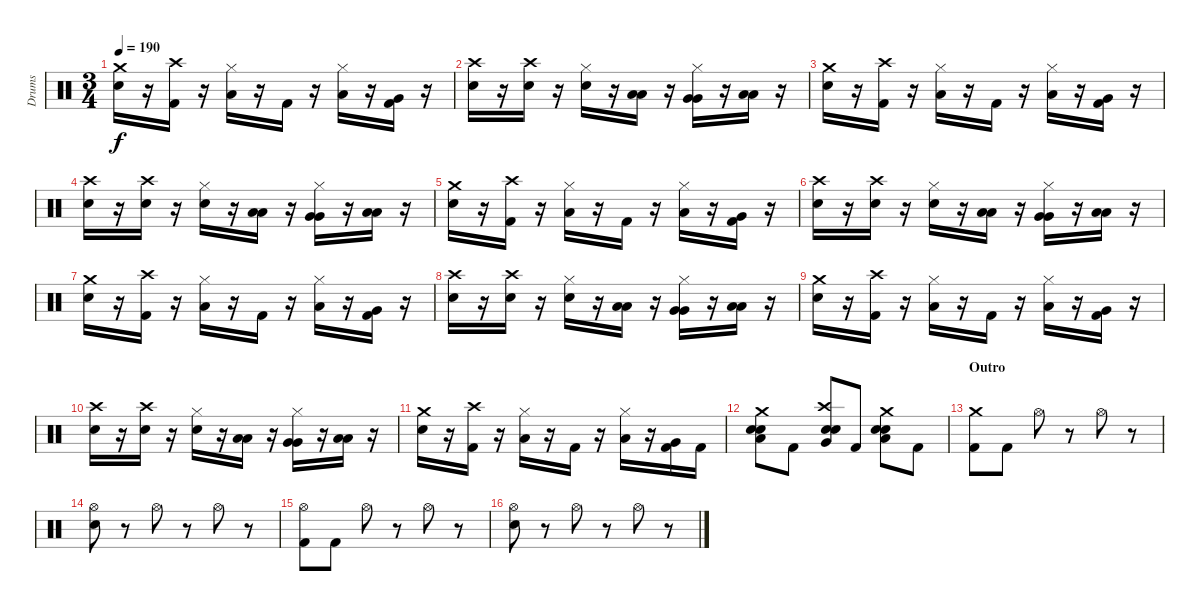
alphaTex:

\track ("Drums" "Drums") {instrument percussion}
\staff {score}
\articulation defaults
\ts (3 4)
\tempo 190
\clef neutral
\ks c
("Crash medium (hit)" "Snare (hit) 2").16{dy f} r.16 ("Crash high (hit)" "Kick (hit) 2").16 r.16 ("Hi-Hat (closed)" "Low Floor Tom (hit)").16 r.16 "Kick (hit) 2".16 r.16 ("Hi-Hat (closed)" "Low Tom (hit)").16 r.16 ("Very Low Tom (hit)" "Kick (hit) 2").16 r.16 |
("Crash high (hit)" "Snare (hit) 2").16 r.16 ("Crash high (hit)" "Snare (hit) 2").16 r.16 ("Hi-Hat (closed)" "Snare (hit) 2").16 r.16 ("Low Tom (hit)" "Low Tom (hit)").16 r.16 ("Hi-Hat (closed)" "Very Low Tom (hit)" "Very Low Tom (hit)").16 r.16 ("Low Floor Tom (hit)" "Low Floor Tom (hit)").16 r.16 |
("Crash medium (hit)" "Snare (hit) 2").16 r.16 ("Crash high (hit)" "Kick (hit) 2").16 r.16 ("Hi-Hat (closed)" "Low Floor Tom (hit)").16 r.16 "Kick (hit) 2".16 r.16 ("Hi-Hat (closed)" "Low Tom (hit)").16 r.16 ("Very Low Tom (hit)" "Kick (hit) 2").16 r.16 |
("Crash high (hit)" "Snare (hit) 2").16 r.16 ("Crash high (hit)" "Snare (hit) 2").16 r.16 ("Hi-Hat (closed)" "Snare (hit) 2").16 r.16 ("Low Tom (hit)" "Low Tom (hit)").16 r.16 ("Hi-Hat (closed)" "Very Low Tom (hit)" "Very Low Tom (hit)").16 r.16 ("Low Floor Tom (hit)" "Low Floor Tom (hit)").16 r.16 |
("Crash medium (hit)" "Snare (hit) 2").16 r.16 ("Crash high (hit)" "Kick (hit) 2").16 r.16 ("Hi-Hat (closed)" "Low Floor Tom (hit)").16 r.16 "Kick (hit) 2".16 r.16 ("Hi-Hat (closed)" "Low Tom (hit)").16 r.16 ("Very Low Tom (hit)" "Kick (hit) 2").16 r.16 |
("Crash high (hit)" "Snare (hit) 2").16 r.16 ("Crash high (hit)" "Snare (hit) 2").16 r.16 ("Hi-Hat (closed)" "Snare (hit) 2").16 r.16 ("Low Tom (hit)" "Low Tom (hit)").16 r.16 ("Hi-Hat (closed)" "Very Low Tom (hit)" "Very Low Tom (hit)").16 r.16 ("Low Floor Tom (hit)" "Low Floor Tom (hit)").16 r.16 |
("Crash medium (hit)" "Snare (hit) 2").16 r.16 ("Crash high (hit)" "Kick (hit) 2").16 r.16 ("Hi-Hat (closed)" "Low Floor Tom (hit)").16 r.16 "Kick (hit) 2".16 r.16 ("Hi-Hat (closed)" "Low Tom (hit)").16 r.16 ("Very Low Tom (hit)" "Kick (hit) 2").16 r.16 |
("Crash high (hit)" "Snare (hit) 2").16 r.16 ("Crash high (hit)" "Snare (hit) 2").16 r.16 ("Hi-Hat (closed)" "Snare (hit) 2").16 r.16 ("Low Tom (hit)" "Low Tom (hit)").16 r.16 ("Hi-Hat (closed)" "Very Low Tom (hit)" "Very Low Tom (hit)").16 r.16 ("Low Floor Tom (hit)" "Low Floor Tom (hit)").16 r.16 |
("Crash medium (hit)" "Snare (hit) 2").16 r.16 ("Crash high (hit)" "Kick (hit) 2").16 r.16 ("Hi-Hat (closed)" "Low Floor Tom (hit)").16 r.16 "Kick (hit) 2".16 r.16 ("Hi-Hat (closed)" "Low Tom (hit)").16 r.16 ("Very Low Tom (hit)" "Kick (hit) 2").16 r.16 |
("Crash high (hit)" "Snare (hit) 2").16 r.16 ("Crash high (hit)" "Snare (hit) 2").16 r.16 ("Hi-Hat (closed)" "Snare (hit) 2").16 r.16 ("Low Tom (hit)" "Low Tom (hit)").16 r.16 ("Hi-Hat (closed)" "Very Low Tom (hit)" "Very Low Tom (hit)").16 r.16 ("Low Floor Tom (hit)" "Low Floor Tom (hit)").16 r.16 |
("Crash medium (hit)" "Snare (hit) 2").16 r.16 ("Crash high (hit)" "Kick (hit) 2").16 r.16 ("Hi-Hat (closed)" "Low Floor Tom (hit)").16 r.16 "Kick (hit) 2".16 r.16 ("Hi-Hat (closed)" "Low Tom (hit)").16 r.16 ("Very Low Tom (hit)" "Kick (hit) 2").16 "Kick (hit) 2".16 |
("Crash medium (hit)" "Low Tom (hit)" "Snare (hit) 2" "Snare (hit) 2").8 "Kick (hit) 2".8 ("Crash high (hit)" "Very Low Tom (hit)" "Snare (hit) 2" "Snare (hit) 2").8 "Kick (hit) 2".8 ("Crash medium (hit)" "Low Tom (hit)" "Snare (hit) 2" "Snare (hit) 2").8 "Kick (hit) 2".8 |
\section ("" "Outro")
("Crash medium (hit)" "Kick (hit) 2").8 "Kick (hit) 2".8 "Hi-Hat (open)".8 r.8 "Hi-Hat (open)".8 r.8 |
("Hi-Hat (open)" "Snare (hit) 2").8 r.8 "Hi-Hat (open)".8 r.8 "Hi-Hat (open)".8 r.8 |
("Hi-Hat (open)" "Kick (hit) 2").8 "Kick (hit) 2".8 "Hi-Hat (open)".8 r.8 "Hi-Hat (open)".8 r.8 |
("Hi-Hat (open)" "Snare (hit) 2").8 r.8 "Hi-Hat (open)".8 r.8 "Hi-Hat (open)".8 r.8
